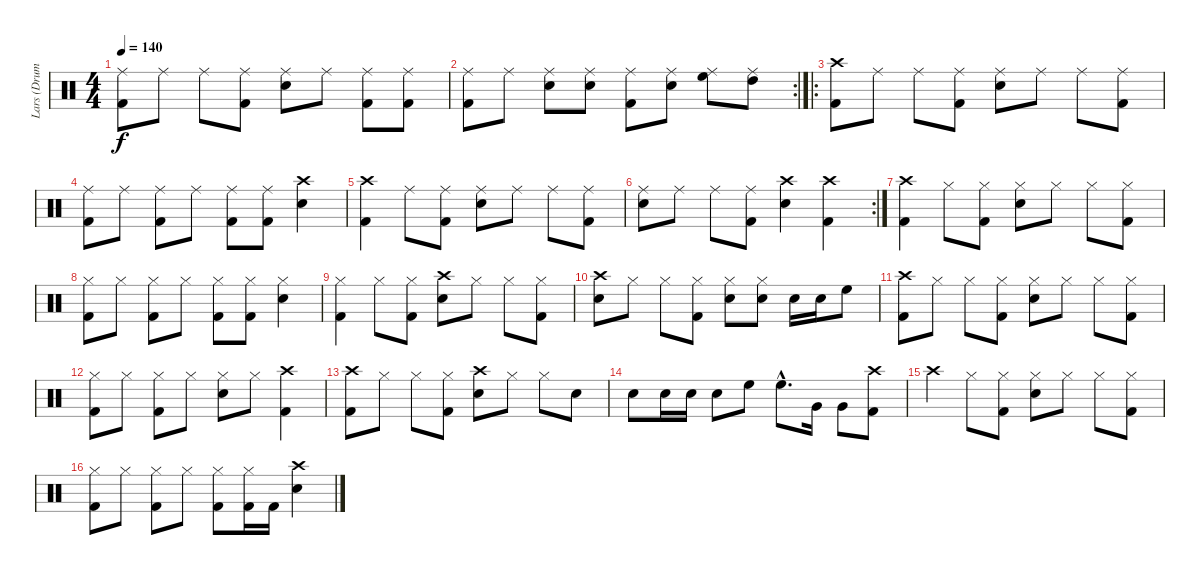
\track ("Lars (Drums)" "Lars (Drum") {instrument percussion}
\staff {score}
\articulation defaults
\ts (4 4)
\tempo 140
\clef neutral
\ks c
("Ride (middle)" "Kick (hit) 2").8{dy f} "Ride (middle)".8 "Ride (middle)".8 ("Ride (middle)" "Kick (hit) 2").8 ("Ride (middle)" "Snare (hit) 2").8 "Ride (middle)".8 ("Ride (middle)" "Kick (hit) 2").8 ("Ride (middle)" "Kick (hit) 2").8 |
\rc 2
("Ride (middle)" "Kick (hit) 2").8 "Ride (middle)".8 ("Ride (middle)" "Snare (hit) 2").8 ("Ride (middle)" "Snare (hit) 2").8 ("Ride (middle)" "Kick (hit) 2").8 ("Ride (middle)" "Snare (hit) 2").8 ("Ride (middle)" "High Floor Tom (hit)").8 ("Ride (middle)" "High Tom (hit)").8 |
\ro
("Crash high (hit)" "Kick (hit) 2").8 "Ride (middle)".8 "Ride (middle)".8 ("Ride (middle)" "Kick (hit) 2").8 ("Ride (middle)" "Snare (hit) 2").8 "Ride (middle)".8 "Ride (middle)".8 ("Ride (middle)" "Kick (hit) 2").8 |
("Ride (middle)" "Kick (hit) 2").8 "Ride (middle)".8 ("Ride (middle)" "Kick (hit) 2").8 "Ride (middle)".8 ("Ride (middle)" "Kick (hit) 2").8 ("Ride (middle)" "Kick (hit) 2").8 ("Crash high (hit)" "Snare (hit) 2").4 |
("Crash high (hit)" "Kick (hit) 2").4 "Ride (middle)".8 ("Ride (middle)" "Kick (hit) 2").8 ("Ride (middle)" "Snare (hit) 2").8 "Ride (middle)".8 "Ride (middle)".8 ("Ride (middle)" "Kick (hit) 2").8 |
\rc 2
("Ride (middle)" "Snare (hit) 2").8 "Ride (middle)".8 "Ride (middle)".8 ("Ride (middle)" "Kick (hit) 2").8 ("Crash high (hit)" "Snare (hit) 2").4 ("Crash high (hit)" "Kick (hit) 2").4 |
("Crash high (hit)" "Kick (hit) 2").4 "Hi-Hat (closed)".8 ("Hi-Hat (closed)" "Kick (hit) 2").8 ("Hi-Hat (closed)" "Snare (hit) 2").8 "Hi-Hat (closed)".8 "Hi-Hat (closed)".8 ("Hi-Hat (closed)" "Kick (hit) 2").8 |
("Hi-Hat (closed)" "Kick (hit) 2").8 "Hi-Hat (closed)".8 ("Hi-Hat (closed)" "Kick (hit) 2").8 "Hi-Hat (closed)".8 ("Hi-Hat (closed)" "Kick (hit) 2").8 ("Hi-Hat (closed)" "Kick (hit) 2").8 ("Hi-Hat (closed)" "Snare (hit) 2").4 |
("Hi-Hat (closed)" "Kick (hit) 2").4 "Hi-Hat (closed)".8 ("Hi-Hat (closed)" "Kick (hit) 2").8 ("Crash high (hit)" "Snare (hit) 2").8 "Hi-Hat (closed)".8 "Hi-Hat (closed)".8 ("Hi-Hat (closed)" "Kick (hit) 2").8 |
("Crash high (hit)" "Snare (hit) 2").8 "Hi-Hat (closed)".8 "Hi-Hat (closed)".8 ("Hi-Hat (closed)" "Kick (hit) 2").8 ("Hi-Hat (closed)" "Snare (hit) 2").8 ("Hi-Hat (closed)" "Snare (hit) 2").8 "Snare (hit) 2".16 "Snare (hit) 2".16 "High Floor Tom (hit)".8 |
("Crash high (hit)" "Kick (hit) 2").8 "Hi-Hat (closed)".8 "Hi-Hat (closed)".8 ("Hi-Hat (closed)" "Kick (hit) 2").8 ("Hi-Hat (closed)" "Snare (hit) 2").8 "Hi-Hat (closed)".8 "Hi-Hat (closed)".8 ("Hi-Hat (closed)" "Kick (hit) 2").8 |
("Hi-Hat (closed)" "Kick (hit) 2").8 "Hi-Hat (closed)".8 ("Hi-Hat (closed)" "Kick (hit) 2").8 "Hi-Hat (closed)".8 ("Hi-Hat (closed)" "Snare (hit) 2").8 "Hi-Hat (closed)".8 ("Crash high (hit)" "Kick (hit) 2").4 |
("Crash high (hit)" "Kick (hit) 2").8 "Hi-Hat (closed)".8 "Hi-Hat (closed)".8 ("Hi-Hat (closed)" "Kick (hit) 2").8 ("Crash high (hit)" "Snare (hit) 2").8 "Hi-Hat (closed)".8 "Hi-Hat (closed)".8 "Snare (hit) 2".8 |
"Snare (hit) 2".8 "Snare (hit) 2".16 "Snare (hit) 2".16 "Snare (hit) 2".8 "High Floor Tom (hit)".8 "High Floor Tom (hit)"{hac}.8{d} "Very Low Tom (hit)".16 "Very Low Tom (hit)".8 ("Crash high (hit)" "Kick (hit) 2").8 |
"Crash high (hit)".4 "Hi-Hat (closed)".8 ("Hi-Hat (closed)" "Kick (hit) 2").8 ("Hi-Hat (closed)" "Snare (hit) 2").8 "Hi-Hat (closed)".8 "Hi-Hat (closed)".8 ("Hi-Hat (closed)" "Kick (hit) 2").8 |
("Hi-Hat (closed)" "Kick (hit) 2").8 "Hi-Hat (closed)".8 ("Hi-Hat (closed)" "Kick (hit) 2").8 "Hi-Hat (closed)".8 ("Hi-Hat (closed)" "Kick (hit) 2").8 ("Hi-Hat (closed)" "Kick (hit) 2").16 "Kick (hit) 2".16 ("Crash high (hit)" "Snare (hit) 2").4
